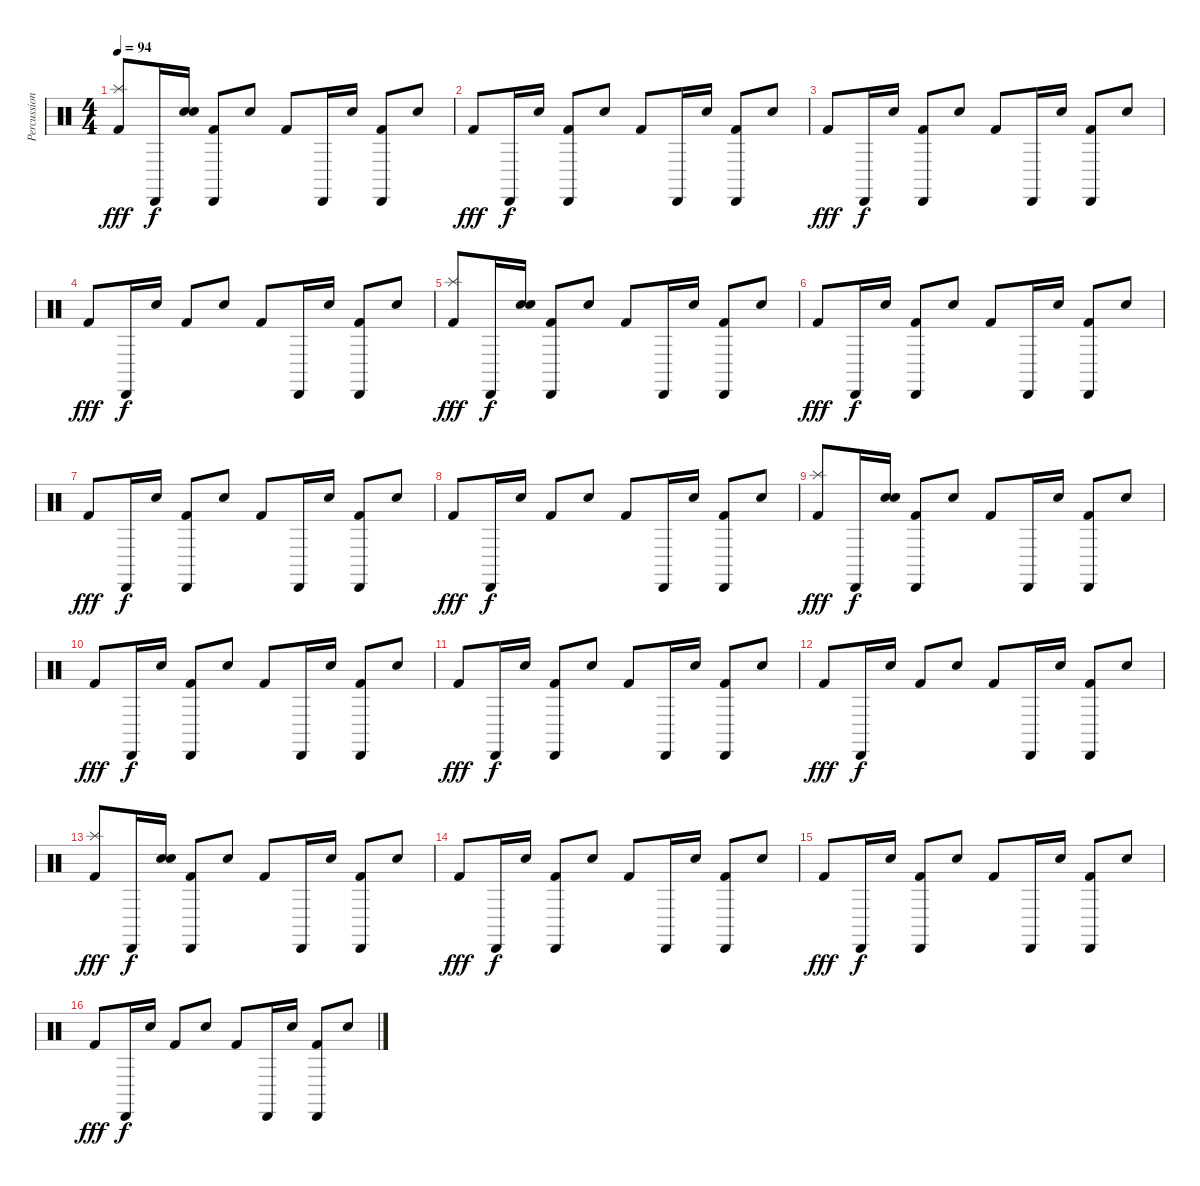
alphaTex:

\track ("Percussions" "Percussion") {instrument percussion}
\staff {score}
\articulation defaults
\ts (4 4)
\tempo 94
\clef neutral
\ks c
("Splash (hit)" "Kick (hit) 2").8{dy fff} "Cabasa (hit)".16{dy f} ("Snare (hit) 2" "Electric Snare (hit)").16 ("Cabasa (hit)" "Kick (hit) 2").8 "Electric Snare (hit)".8 "Kick (hit) 2".8 "Cabasa (hit)".16 "Electric Snare (hit)".16 ("Cabasa (hit)" "Kick (hit) 2").8 "Electric Snare (hit)".8 |
"Kick (hit) 2".8{dy fff} "Cabasa (hit)".16{dy f} "Electric Snare (hit)".16 ("Cabasa (hit)" "Kick (hit) 2").8 "Electric Snare (hit)".8 "Kick (hit) 2".8 "Cabasa (hit)".16 "Electric Snare (hit)".16 ("Cabasa (hit)" "Kick (hit) 2").8 "Electric Snare (hit)".8 |
"Kick (hit) 2".8{dy fff} "Cabasa (hit)".16{dy f} "Electric Snare (hit)".16 ("Cabasa (hit)" "Kick (hit) 2").8 "Electric Snare (hit)".8 "Kick (hit) 2".8 "Cabasa (hit)".16 "Electric Snare (hit)".16 ("Cabasa (hit)" "Kick (hit) 2").8 "Electric Snare (hit)".8 |
"Kick (hit) 2".8{dy fff} "Cabasa (hit)".16{dy f} "Electric Snare (hit)".16 "Kick (hit) 2".8 "Electric Snare (hit)".8 "Kick (hit) 2".8 "Cabasa (hit)".16 "Electric Snare (hit)".16 ("Cabasa (hit)" "Kick (hit) 2").8 "Electric Snare (hit)".8 |
("Splash (hit)" "Kick (hit) 2").8{dy fff} "Cabasa (hit)".16{dy f} ("Snare (hit) 2" "Electric Snare (hit)").16 ("Cabasa (hit)" "Kick (hit) 2").8 "Electric Snare (hit)".8 "Kick (hit) 2".8 "Cabasa (hit)".16 "Electric Snare (hit)".16 ("Cabasa (hit)" "Kick (hit) 2").8 "Electric Snare (hit)".8 |
"Kick (hit) 2".8{dy fff} "Cabasa (hit)".16{dy f} "Electric Snare (hit)".16 ("Cabasa (hit)" "Kick (hit) 2").8 "Electric Snare (hit)".8 "Kick (hit) 2".8 "Cabasa (hit)".16 "Electric Snare (hit)".16 ("Cabasa (hit)" "Kick (hit) 2").8 "Electric Snare (hit)".8 |
"Kick (hit) 2".8{dy fff} "Cabasa (hit)".16{dy f} "Electric Snare (hit)".16 ("Cabasa (hit)" "Kick (hit) 2").8 "Electric Snare (hit)".8 "Kick (hit) 2".8 "Cabasa (hit)".16 "Electric Snare (hit)".16 ("Cabasa (hit)" "Kick (hit) 2").8 "Electric Snare (hit)".8 |
"Kick (hit) 2".8{dy fff} "Cabasa (hit)".16{dy f} "Electric Snare (hit)".16 "Kick (hit) 2".8 "Electric Snare (hit)".8 "Kick (hit) 2".8 "Cabasa (hit)".16 "Electric Snare (hit)".16 ("Cabasa (hit)" "Kick (hit) 2").8 "Electric Snare (hit)".8 |
("Splash (hit)" "Kick (hit) 2").8{dy fff} "Cabasa (hit)".16{dy f} ("Snare (hit) 2" "Electric Snare (hit)").16 ("Cabasa (hit)" "Kick (hit) 2").8 "Electric Snare (hit)".8 "Kick (hit) 2".8 "Cabasa (hit)".16 "Electric Snare (hit)".16 ("Cabasa (hit)" "Kick (hit) 2").8 "Electric Snare (hit)".8 |
"Kick (hit) 2".8{dy fff} "Cabasa (hit)".16{dy f} "Electric Snare (hit)".16 ("Cabasa (hit)" "Kick (hit) 2").8 "Electric Snare (hit)".8 "Kick (hit) 2".8 "Cabasa (hit)".16 "Electric Snare (hit)".16 ("Cabasa (hit)" "Kick (hit) 2").8 "Electric Snare (hit)".8 |
"Kick (hit) 2".8{dy fff} "Cabasa (hit)".16{dy f} "Electric Snare (hit)".16 ("Cabasa (hit)" "Kick (hit) 2").8 "Electric Snare (hit)".8 "Kick (hit) 2".8 "Cabasa (hit)".16 "Electric Snare (hit)".16 ("Cabasa (hit)" "Kick (hit) 2").8 "Electric Snare (hit)".8 |
"Kick (hit) 2".8{dy fff} "Cabasa (hit)".16{dy f} "Electric Snare (hit)".16 "Kick (hit) 2".8 "Electric Snare (hit)".8 "Kick (hit) 2".8 "Cabasa (hit)".16 "Electric Snare (hit)".16 ("Cabasa (hit)" "Kick (hit) 2").8 "Electric Snare (hit)".8 |
("Splash (hit)" "Kick (hit) 2").8{dy fff} "Cabasa (hit)".16{dy f} ("Snare (hit) 2" "Electric Snare (hit)").16 ("Cabasa (hit)" "Kick (hit) 2").8 "Electric Snare (hit)".8 "Kick (hit) 2".8 "Cabasa (hit)".16 "Electric Snare (hit)".16 ("Cabasa (hit)" "Kick (hit) 2").8 "Electric Snare (hit)".8 |
"Kick (hit) 2".8{dy fff} "Cabasa (hit)".16{dy f} "Electric Snare (hit)".16 ("Cabasa (hit)" "Kick (hit) 2").8 "Electric Snare (hit)".8 "Kick (hit) 2".8 "Cabasa (hit)".16 "Electric Snare (hit)".16 ("Cabasa (hit)" "Kick (hit) 2").8 "Electric Snare (hit)".8 |
"Kick (hit) 2".8{dy fff} "Cabasa (hit)".16{dy f} "Electric Snare (hit)".16 ("Cabasa (hit)" "Kick (hit) 2").8 "Electric Snare (hit)".8 "Kick (hit) 2".8 "Cabasa (hit)".16 "Electric Snare (hit)".16 ("Cabasa (hit)" "Kick (hit) 2").8 "Electric Snare (hit)".8 |
"Kick (hit) 2".8{dy fff} "Cabasa (hit)".16{dy f} "Electric Snare (hit)".16 "Kick (hit) 2".8 "Electric Snare (hit)".8 "Kick (hit) 2".8 "Cabasa (hit)".16 "Electric Snare (hit)".16 ("Cabasa (hit)" "Kick (hit) 2").8 "Electric Snare (hit)".8
